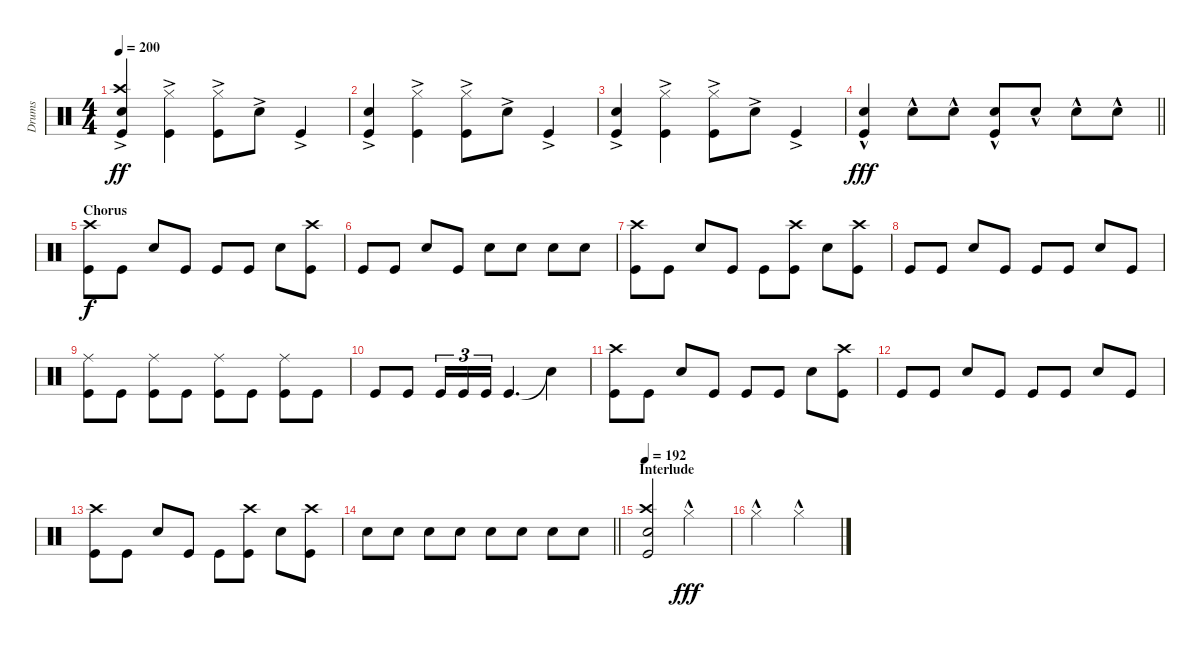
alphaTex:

\track ("Drums" "Drums") {instrument percussion}
\staff {score}
\articulation defaults
\ts (4 4)
\tempo 200
\clef neutral
\ks c
("Kick (hit)"{ac} "Crash high (hit)"{ac} "Snare (hit) 2"{ac}).4{dy ff} ("Hi-Hat (closed)"{ac} "Kick (hit)"{ac}).4 ("Hi-Hat (closed)"{ac} "Kick (hit)"{ac}).8 "Snare (hit) 2"{ac}.8 "Kick (hit)"{ac}.4 |
("Kick (hit)"{ac} "Snare (hit) 2"{ac}).4 ("Hi-Hat (closed)"{ac} "Kick (hit)"{ac}).4 ("Hi-Hat (closed)"{ac} "Kick (hit)"{ac}).8 "Snare (hit) 2"{ac}.8 "Kick (hit)"{ac}.4 |
("Kick (hit)"{ac} "Snare (hit) 2"{ac}).4 ("Hi-Hat (closed)"{ac} "Kick (hit)"{ac}).4 ("Hi-Hat (closed)"{ac} "Kick (hit)"{ac}).8 "Snare (hit) 2"{ac}.8 "Kick (hit)"{ac}.4 |
\barLineRight lightlight
("Kick (hit)"{hac} "Snare (hit) 2"{hac}).4{dy fff} "Snare (hit) 2"{hac}.8 "Snare (hit) 2"{hac}.8 ("Snare (hit) 2"{hac} "Kick (hit)"{hac}).8 "Snare (hit) 2"{hac}.8 "Snare (hit) 2"{hac}.8 "Snare (hit) 2"{hac}.8 |
\section ("" "Chorus")
("Crash high (hit)" "Kick (hit)").8{dy f} "Kick (hit)".8 "Snare (hit) 2".8 "Kick (hit)".8 "Kick (hit)".8 "Kick (hit)".8 "Snare (hit) 2".8 ("Crash high (hit)" "Kick (hit)").8 |
"Kick (hit)".8 "Kick (hit)".8 "Snare (hit) 2".8 "Kick (hit)".8 "Snare (hit) 2".8 "Snare (hit) 2".8 "Snare (hit) 2".8 "Snare (hit) 2".8 |
("Crash high (hit)" "Kick (hit)").8 "Kick (hit)".8 "Snare (hit) 2".8 "Kick (hit)".8 "Kick (hit)".8 ("Crash high (hit)" "Kick (hit)").8 "Snare (hit) 2".8 ("Crash high (hit)" "Kick (hit)").8 |
"Kick (hit)".8 "Kick (hit)".8 "Snare (hit) 2".8 "Kick (hit)".8 "Kick (hit)".8 "Kick (hit)".8 "Snare (hit) 2".8 "Kick (hit)".8 |
("Ride (middle)" "Kick (hit)").8 "Kick (hit)".8 ("Ride (middle)" "Kick (hit)").8 "Kick (hit)".8 ("Ride (middle)" "Kick (hit)").8 "Kick (hit)".8 ("Ride (middle)" "Kick (hit)").8 "Kick (hit)".8 |
"Kick (hit)".8 "Kick (hit)".8 "Kick (hit)".16{tu (3 2)} "Kick (hit)".16{tu (3 2)} "Kick (hit)".16{tu (3 2)} "Kick (hit)".4{d} "Snare (hit)"{t}.4 |
("Crash high (hit)" "Kick (hit)").8 "Kick (hit)".8 "Snare (hit) 2".8 "Kick (hit)".8 "Kick (hit)".8 "Kick (hit)".8 "Snare (hit) 2".8 ("Crash high (hit)" "Kick (hit)").8 |
"Kick (hit)".8 "Kick (hit)".8 "Snare (hit) 2".8 "Kick (hit)".8 "Kick (hit)".8 "Kick (hit)".8 "Snare (hit) 2".8 "Kick (hit)".8 |
("Crash high (hit)" "Kick (hit)").8 "Kick (hit)".8 "Snare (hit) 2".8 "Kick (hit)".8 "Kick (hit)".8 ("Crash high (hit)" "Kick (hit)").8 "Snare (hit) 2".8 ("Crash high (hit)" "Kick (hit)").8 |
\barLineRight lightlight "Snare (hit) 2".8 "Snare (hit) 2".8 "Snare (hit) 2".8 "Snare (hit) 2".8 "Snare (hit) 2".8 "Snare (hit) 2".8 "Snare (hit) 2".8 "Snare (hit) 2".8
|
\section ("" "Interlude")
\tempo 192
("Crash high (hit)" "Snare (hit) 2" "Kick (hit)").2 "Hi-Hat (closed)"{hac}.2{dy fff} |
"Hi-Hat (closed)"{hac}.2 "Hi-Hat (closed)"{hac}.2
